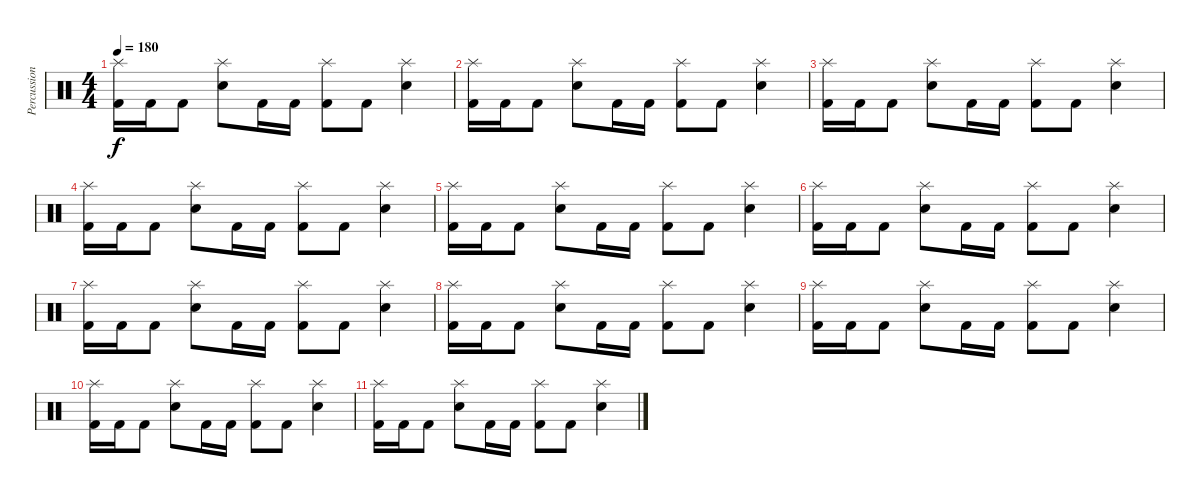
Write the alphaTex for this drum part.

\track ("Percussion" "Percussion") {instrument percussion}
\staff {score}
\articulation defaults
\ts (4 4)
\tempo 180
\clef neutral
\ks c
("Splash (hit)" "Kick (hit) 2").16{dy f} "Kick (hit) 2".16 "Kick (hit) 2".8 ("Splash (hit)" "Electric Snare (hit)").8 "Kick (hit) 2".16 "Kick (hit) 2".16 ("Splash (hit)" "Kick (hit) 2").8 "Kick (hit) 2".8 ("Splash (hit)" "Electric Snare (hit)").4 |
("Splash (hit)" "Kick (hit) 2").16 "Kick (hit) 2".16 "Kick (hit) 2".8 ("Splash (hit)" "Electric Snare (hit)").8 "Kick (hit) 2".16 "Kick (hit) 2".16 ("Splash (hit)" "Kick (hit) 2").8 "Kick (hit) 2".8 ("Splash (hit)" "Electric Snare (hit)").4 |
("Splash (hit)" "Kick (hit) 2").16 "Kick (hit) 2".16 "Kick (hit) 2".8 ("Splash (hit)" "Electric Snare (hit)").8 "Kick (hit) 2".16 "Kick (hit) 2".16 ("Splash (hit)" "Kick (hit) 2").8 "Kick (hit) 2".8 ("Splash (hit)" "Electric Snare (hit)").4 |
("Splash (hit)" "Kick (hit) 2").16 "Kick (hit) 2".16 "Kick (hit) 2".8 ("Splash (hit)" "Electric Snare (hit)").8 "Kick (hit) 2".16 "Kick (hit) 2".16 ("Splash (hit)" "Kick (hit) 2").8 "Kick (hit) 2".8 ("Splash (hit)" "Electric Snare (hit)").4 |
("Splash (hit)" "Kick (hit) 2").16 "Kick (hit) 2".16 "Kick (hit) 2".8 ("Splash (hit)" "Electric Snare (hit)").8 "Kick (hit) 2".16 "Kick (hit) 2".16 ("Splash (hit)" "Kick (hit) 2").8 "Kick (hit) 2".8 ("Splash (hit)" "Electric Snare (hit)").4 |
("Splash (hit)" "Kick (hit) 2").16 "Kick (hit) 2".16 "Kick (hit) 2".8 ("Splash (hit)" "Electric Snare (hit)").8 "Kick (hit) 2".16 "Kick (hit) 2".16 ("Splash (hit)" "Kick (hit) 2").8 "Kick (hit) 2".8 ("Splash (hit)" "Electric Snare (hit)").4 |
("Splash (hit)" "Kick (hit) 2").16 "Kick (hit) 2".16 "Kick (hit) 2".8 ("Splash (hit)" "Electric Snare (hit)").8 "Kick (hit) 2".16 "Kick (hit) 2".16 ("Splash (hit)" "Kick (hit) 2").8 "Kick (hit) 2".8 ("Splash (hit)" "Electric Snare (hit)").4 |
("Splash (hit)" "Kick (hit) 2").16 "Kick (hit) 2".16 "Kick (hit) 2".8 ("Splash (hit)" "Electric Snare (hit)").8 "Kick (hit) 2".16 "Kick (hit) 2".16 ("Splash (hit)" "Kick (hit) 2").8 "Kick (hit) 2".8 ("Splash (hit)" "Electric Snare (hit)").4 |
("Splash (hit)" "Kick (hit) 2").16 "Kick (hit) 2".16 "Kick (hit) 2".8 ("Splash (hit)" "Electric Snare (hit)").8 "Kick (hit) 2".16 "Kick (hit) 2".16 ("Splash (hit)" "Kick (hit) 2").8 "Kick (hit) 2".8 ("Splash (hit)" "Electric Snare (hit)").4 |
("Splash (hit)" "Kick (hit) 2").16 "Kick (hit) 2".16 "Kick (hit) 2".8 ("Splash (hit)" "Electric Snare (hit)").8 "Kick (hit) 2".16 "Kick (hit) 2".16 ("Splash (hit)" "Kick (hit) 2").8 "Kick (hit) 2".8 ("Splash (hit)" "Electric Snare (hit)").4 |
("Splash (hit)" "Kick (hit) 2").16 "Kick (hit) 2".16 "Kick (hit) 2".8 ("Splash (hit)" "Electric Snare (hit)").8 "Kick (hit) 2".16 "Kick (hit) 2".16 ("Splash (hit)" "Kick (hit) 2").8 "Kick (hit) 2".8 ("Splash (hit)" "Electric Snare (hit)").4
